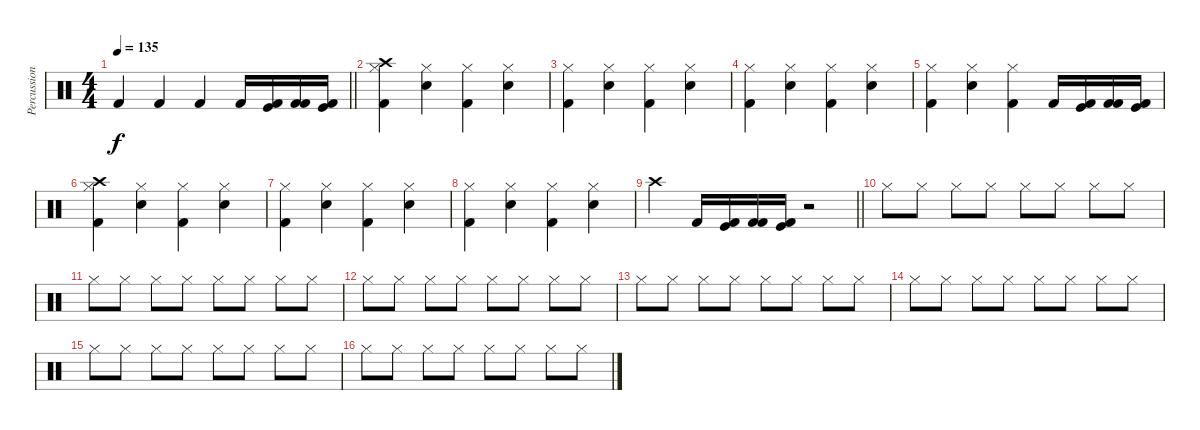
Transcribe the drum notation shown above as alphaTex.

\track ("Percussion" "Percussion") {instrument percussion}
\staff {score}
\articulation defaults
\ts (4 4)
\tempo 135
\clef neutral
\barLineRight lightlight
\ks c "Kick (hit) 2".4{dy f} "Kick (hit) 2".4 "Kick (hit) 2".4 "Kick (hit) 2".16
("Kick (hit)" "Kick (hit) 2").16 ("Kick (hit) 2" "Kick (hit) 2").16 ("Kick (hit)" "Kick (hit) 2").16 |
("Crash high (hit)" "Kick (hit) 2" "Hi-Hat (closed)").4 ("Snare (hit) 2" "Hi-Hat (closed)").4 ("Kick (hit) 2" "Hi-Hat (closed)").4 ("Snare (hit) 2" "Hi-Hat (closed)").4 |
("Kick (hit) 2" "Hi-Hat (closed)").4 ("Snare (hit) 2" "Hi-Hat (closed)").4 ("Kick (hit) 2" "Hi-Hat (closed)").4 ("Snare (hit) 2" "Hi-Hat (closed)").4 |
("Kick (hit) 2" "Hi-Hat (closed)").4 ("Snare (hit) 2" "Hi-Hat (closed)").4 ("Kick (hit) 2" "Hi-Hat (closed)").4 ("Snare (hit) 2" "Hi-Hat (closed)").4 |
("Kick (hit) 2" "Hi-Hat (closed)").4 ("Snare (hit) 2" "Hi-Hat (closed)").4 ("Kick (hit) 2" "Hi-Hat (closed)").4 "Kick (hit) 2".16 ("Kick (hit)" "Kick (hit) 2").16 ("Kick (hit) 2" "Kick (hit) 2").16 ("Kick (hit)" "Kick (hit) 2").16 |
("Crash high (hit)" "Kick (hit) 2" "Hi-Hat (closed)").4 ("Snare (hit) 2" "Hi-Hat (closed)").4 ("Kick (hit) 2" "Hi-Hat (closed)").4 ("Snare (hit) 2" "Hi-Hat (closed)").4 |
("Kick (hit) 2" "Hi-Hat (closed)").4 ("Snare (hit) 2" "Hi-Hat (closed)").4 ("Kick (hit) 2" "Hi-Hat (closed)").4 ("Snare (hit) 2" "Hi-Hat (closed)").4 |
("Kick (hit) 2" "Hi-Hat (closed)").4 ("Snare (hit) 2" "Hi-Hat (closed)").4 ("Kick (hit) 2" "Hi-Hat (closed)").4 ("Snare (hit) 2" "Hi-Hat (closed)").4 |
\barLineRight lightlight "Crash high (hit)".4 "Kick (hit) 2".16
("Kick (hit)" "Kick (hit) 2").16 ("Kick (hit) 2" "Kick (hit) 2").16 ("Kick (hit)" "Kick (hit) 2").16 r.2 |
"Hi-Hat (closed)".8 "Hi-Hat (closed)".8 "Hi-Hat (closed)".8 "Hi-Hat (closed)".8 "Hi-Hat (closed)".8 "Hi-Hat (closed)".8 "Hi-Hat (closed)".8 "Hi-Hat (closed)".8 |
"Hi-Hat (closed)".8 "Hi-Hat (closed)".8 "Hi-Hat (closed)".8 "Hi-Hat (closed)".8 "Hi-Hat (closed)".8 "Hi-Hat (closed)".8 "Hi-Hat (closed)".8 "Hi-Hat (closed)".8 |
"Hi-Hat (closed)".8 "Hi-Hat (closed)".8 "Hi-Hat (closed)".8 "Hi-Hat (closed)".8 "Hi-Hat (closed)".8 "Hi-Hat (closed)".8 "Hi-Hat (closed)".8 "Hi-Hat (closed)".8 |
"Hi-Hat (closed)".8 "Hi-Hat (closed)".8 "Hi-Hat (closed)".8 "Hi-Hat (closed)".8 "Hi-Hat (closed)".8 "Hi-Hat (closed)".8 "Hi-Hat (closed)".8 "Hi-Hat (closed)".8 |
"Hi-Hat (closed)".8 "Hi-Hat (closed)".8 "Hi-Hat (closed)".8 "Hi-Hat (closed)".8 "Hi-Hat (closed)".8 "Hi-Hat (closed)".8 "Hi-Hat (closed)".8 "Hi-Hat (closed)".8 |
"Hi-Hat (closed)".8 "Hi-Hat (closed)".8 "Hi-Hat (closed)".8 "Hi-Hat (closed)".8 "Hi-Hat (closed)".8 "Hi-Hat (closed)".8 "Hi-Hat (closed)".8 "Hi-Hat (closed)".8 |
"Hi-Hat (closed)".8 "Hi-Hat (closed)".8 "Hi-Hat (closed)".8 "Hi-Hat (closed)".8 "Hi-Hat (closed)".8 "Hi-Hat (closed)".8 "Hi-Hat (closed)".8 "Hi-Hat (closed)".8
